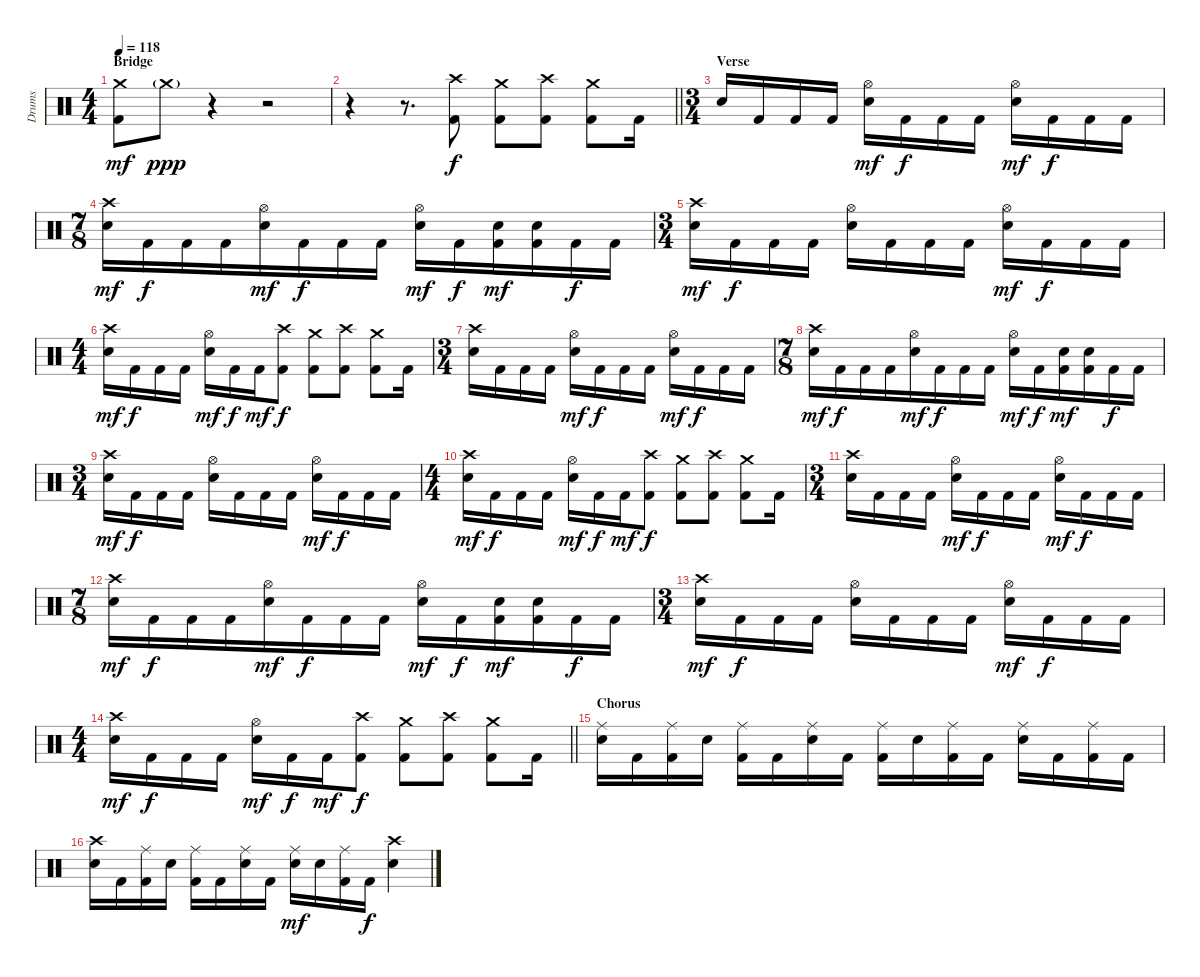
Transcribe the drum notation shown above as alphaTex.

\track ("Drums" "Drums") {instrument percussion}
\staff {score}
\articulation defaults
\ts (4 4)
\section ("" "Bridge")
\tempo 118
\clef neutral
\ks aminor
("Crash medium (hit)" "Kick (hit) 2").8{dy mf} "Crash medium (hit)"{g}.8{dy ppp volume 0} r.4 r.2 |
\barLineRight lightlight
r.4 r.8{d} ("Crash high (hit)" "Kick (hit) 2").8{dy f volume 16} ("Crash medium (hit)" "Kick (hit) 2").8 ("Crash high (hit)" "Kick (hit) 2").8 ("Crash medium (hit)" "Kick (hit) 2").8 "Kick (hit) 2".16 |
\ts (3 4)
\section ("" "Verse")
"Snare (hit) 2".16 "Kick (hit) 2".16 "Kick (hit) 2".16 "Kick (hit) 2".16 ("Hi-Hat (open)" "Snare (hit) 2").16{dy mf} "Kick (hit) 2".16{dy f} "Kick (hit) 2".16 "Kick (hit) 2".16 ("Hi-Hat (open)" "Snare (hit) 2").16{dy mf} "Kick (hit) 2".16{dy f} "Kick (hit) 2".16 "Kick (hit) 2".16 |
\ts (7 8)
("Crash high (hit)" "Snare (hit) 2").16{dy mf} "Kick (hit) 2".16{dy f} "Kick (hit) 2".16 "Kick (hit) 2".16 ("Hi-Hat (open)" "Snare (hit) 2").16{dy mf} "Kick (hit) 2".16{dy f} "Kick (hit) 2".16 "Kick (hit) 2".16 ("Hi-Hat (open)" "Snare (hit) 2").16{dy mf} "Kick (hit) 2".16{dy f} ("Snare (hit) 2" "Kick (hit) 2").16{dy mf} ("Snare (hit) 2" "Kick (hit) 2").16 "Kick (hit) 2".16{dy f} "Kick (hit) 2".16 |
\ts (3 4)
("Crash high (hit)" "Snare (hit) 2").16{dy mf} "Kick (hit) 2".16{dy f} "Kick (hit) 2".16 "Kick (hit) 2".16 ("Hi-Hat (open)" "Snare (hit) 2").16 "Kick (hit) 2".16 "Kick (hit) 2".16 "Kick (hit) 2".16 ("Hi-Hat (open)" "Snare (hit) 2").16{dy mf} "Kick (hit) 2".16{dy f} "Kick (hit) 2".16 "Kick (hit) 2".16 |
\ts (4 4)
("Crash high (hit)" "Snare (hit) 2").16{dy mf} "Kick (hit) 2".16{dy f} "Kick (hit) 2".16 "Kick (hit) 2".16 ("Hi-Hat (open)" "Snare (hit) 2").16{dy mf} "Kick (hit) 2".16{dy f} "Kick (hit) 2".16{dy mf} ("Crash high (hit)" "Kick (hit) 2").8{dy f} ("Crash medium (hit)" "Kick (hit) 2").8 ("Crash high (hit)" "Kick (hit) 2").8 ("Crash medium (hit)" "Kick (hit) 2").8 "Kick (hit) 2".16 |
\ts (3 4)
("Crash high (hit)" "Snare (hit) 2").16 "Kick (hit) 2".16 "Kick (hit) 2".16 "Kick (hit) 2".16 ("Hi-Hat (open)" "Snare (hit) 2").16{dy mf} "Kick (hit) 2".16{dy f} "Kick (hit) 2".16 "Kick (hit) 2".16 ("Hi-Hat (open)" "Snare (hit) 2").16{dy mf} "Kick (hit) 2".16{dy f} "Kick (hit) 2".16 "Kick (hit) 2".16 |
\ts (7 8)
("Crash high (hit)" "Snare (hit) 2").16{dy mf} "Kick (hit) 2".16{dy f} "Kick (hit) 2".16 "Kick (hit) 2".16 ("Hi-Hat (open)" "Snare (hit) 2").16{dy mf} "Kick (hit) 2".16{dy f} "Kick (hit) 2".16 "Kick (hit) 2".16 ("Hi-Hat (open)" "Snare (hit) 2").16{dy mf} "Kick (hit) 2".16{dy f} ("Snare (hit) 2" "Kick (hit) 2").16{dy mf} ("Snare (hit) 2" "Kick (hit) 2").16 "Kick (hit) 2".16{dy f} "Kick (hit) 2".16 |
\ts (3 4)
("Crash high (hit)" "Snare (hit) 2").16{dy mf} "Kick (hit) 2".16{dy f} "Kick (hit) 2".16 "Kick (hit) 2".16 ("Hi-Hat (open)" "Snare (hit) 2").16 "Kick (hit) 2".16 "Kick (hit) 2".16 "Kick (hit) 2".16 ("Hi-Hat (open)" "Snare (hit) 2").16{dy mf} "Kick (hit) 2".16{dy f} "Kick (hit) 2".16 "Kick (hit) 2".16 |
\ts (4 4)
("Crash high (hit)" "Snare (hit) 2").16{dy mf} "Kick (hit) 2".16{dy f} "Kick (hit) 2".16 "Kick (hit) 2".16 ("Hi-Hat (open)" "Snare (hit) 2").16{dy mf} "Kick (hit) 2".16{dy f} "Kick (hit) 2".16{dy mf} ("Crash high (hit)" "Kick (hit) 2").8{dy f} ("Crash medium (hit)" "Kick (hit) 2").8 ("Crash high (hit)" "Kick (hit) 2").8 ("Crash medium (hit)" "Kick (hit) 2").8 "Kick (hit) 2".16 |
\ts (3 4)
("Crash high (hit)" "Snare (hit) 2").16 "Kick (hit) 2".16 "Kick (hit) 2".16 "Kick (hit) 2".16 ("Hi-Hat (open)" "Snare (hit) 2").16{dy mf} "Kick (hit) 2".16{dy f} "Kick (hit) 2".16 "Kick (hit) 2".16 ("Hi-Hat (open)" "Snare (hit) 2").16{dy mf} "Kick (hit) 2".16{dy f} "Kick (hit) 2".16 "Kick (hit) 2".16 |
\ts (7 8)
("Crash high (hit)" "Snare (hit) 2").16{dy mf} "Kick (hit) 2".16{dy f} "Kick (hit) 2".16 "Kick (hit) 2".16 ("Hi-Hat (open)" "Snare (hit) 2").16{dy mf} "Kick (hit) 2".16{dy f} "Kick (hit) 2".16 "Kick (hit) 2".16 ("Hi-Hat (open)" "Snare (hit) 2").16{dy mf} "Kick (hit) 2".16{dy f} ("Snare (hit) 2" "Kick (hit) 2").16{dy mf} ("Snare (hit) 2" "Kick (hit) 2").16 "Kick (hit) 2".16{dy f} "Kick (hit) 2".16 |
\ts (3 4)
("Crash high (hit)" "Snare (hit) 2").16{dy mf} "Kick (hit) 2".16{dy f} "Kick (hit) 2".16 "Kick (hit) 2".16 ("Hi-Hat (open)" "Snare (hit) 2").16 "Kick (hit) 2".16 "Kick (hit) 2".16 "Kick (hit) 2".16 ("Hi-Hat (open)" "Snare (hit) 2").16{dy mf} "Kick (hit) 2".16{dy f} "Kick (hit) 2".16 "Kick (hit) 2".16 |
\ts (4 4)
\barLineRight lightlight
("Crash high (hit)" "Snare (hit) 2").16{dy mf} "Kick (hit) 2".16{dy f} "Kick (hit) 2".16 "Kick (hit) 2".16 ("Hi-Hat (open)" "Snare (hit) 2").16{dy mf} "Kick (hit) 2".16{dy f} "Kick (hit) 2".16{dy mf} ("Crash high (hit)" "Kick (hit) 2").8{dy f} ("Crash medium (hit)" "Kick (hit) 2").8 ("Crash high (hit)" "Kick (hit) 2").8 ("Crash medium (hit)" "Kick (hit) 2").8 "Kick (hit) 2".16 |
\section ("" "Chorus")
("Ride (middle)" "Snare (hit) 2").16 "Kick (hit) 2".16 ("Ride (middle)" "Kick (hit) 2").16 "Snare (hit) 2".16 ("Ride (middle)" "Kick (hit) 2").16 "Kick (hit) 2".16 ("Ride (middle)" "Snare (hit) 2").16 "Kick (hit) 2".16 ("Ride (middle)" "Kick (hit) 2").16 "Snare (hit) 2".16 ("Ride (middle)" "Kick (hit) 2").16 "Kick (hit) 2".16 ("Ride (middle)" "Snare (hit) 2").16 "Kick (hit) 2".16 ("Ride (middle)" "Kick (hit) 2").16 "Kick (hit) 2".16 |
("Crash high (hit)" "Snare (hit) 2").16 "Kick (hit) 2".16 ("Ride (middle)" "Kick (hit) 2").16 "Snare (hit) 2".16 ("Ride (middle)" "Kick (hit) 2").16 "Kick (hit) 2".16 ("Ride (middle)" "Snare (hit) 2").16 "Kick (hit) 2".16 ("Ride (middle)" "Snare (hit) 2").16{dy mf} "Snare (hit) 2".16 ("Ride (middle)" "Kick (hit) 2").16 "Kick (hit) 2".16{dy f} ("Crash high (hit)" "Snare (hit) 2").4
